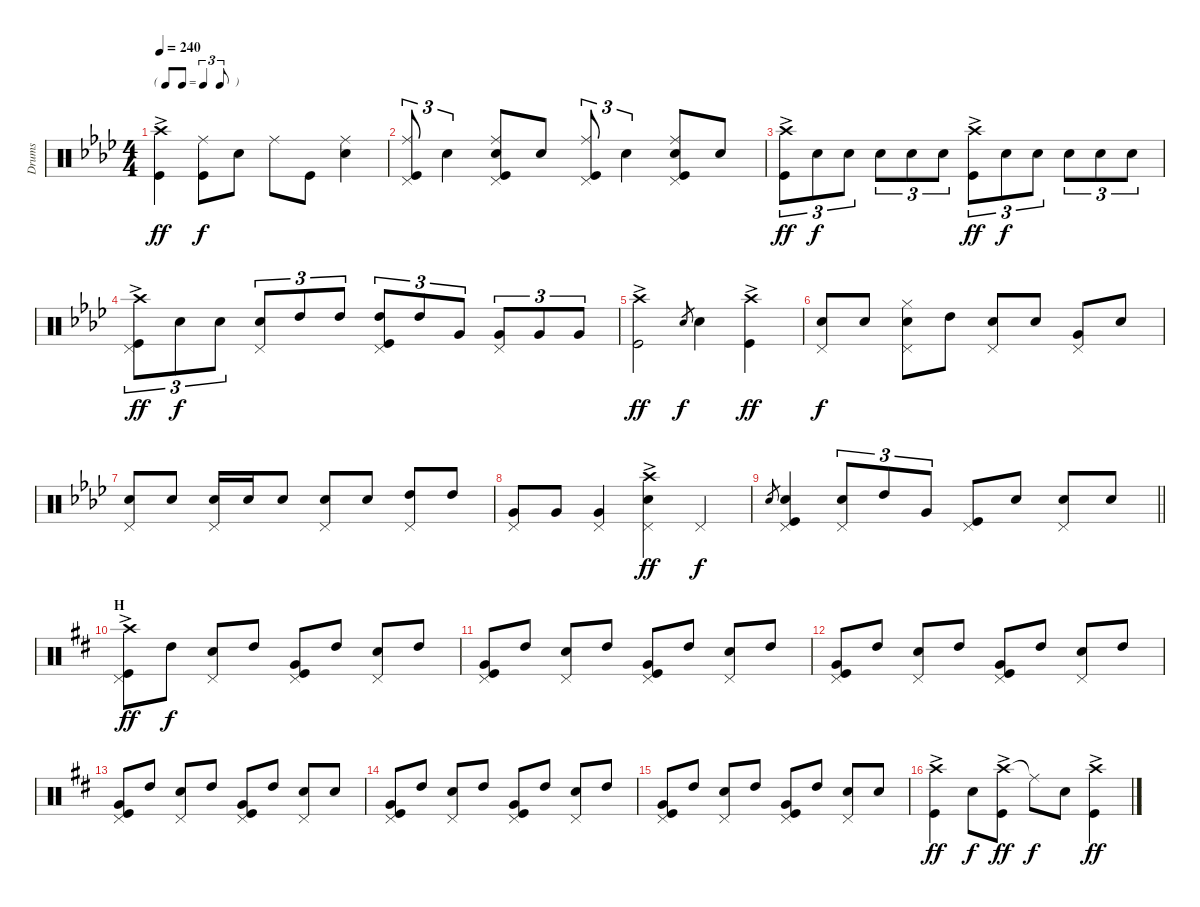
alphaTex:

\track ("Drums" "Drums") {instrument percussion}
\staff {score}
\articulation defaults
\ts (4 4)
\tf triplet8th
\tempo 240
\clef neutral
\ks ab
("Crash high (hit)"{ac} "Kick (hit)").4{dy ff} ("Ride (middle)" "Kick (hit)").8{dy f} "Snare (hit) 2".8 "Ride (middle)".8 "Kick (hit)".8 ("Ride (middle)" "Snare (hit) 2").4 |
("Ride (middle)" "Kick (hit)" "Pedal Hi-Hat (hit)").8{tu (3 2)} "Snare (hit) 2".4{tu (3 2)} ("Ride (middle)" "Snare (hit) 2" "Kick (hit)" "Pedal Hi-Hat (hit)").8 "Snare (hit) 2".8 ("Ride (middle)" "Kick (hit)" "Pedal Hi-Hat (hit)").8{tu (3 2)} "Snare (hit) 2".4{tu (3 2)} ("Ride (middle)" "Snare (hit) 2" "Kick (hit)" "Pedal Hi-Hat (hit)").8 "Snare (hit) 2".8 |
("Crash high (hit)"{ac} "Kick (hit)").8{tu (3 2) dy ff} "Snare (hit) 2".8{tu (3 2) dy f} "Snare (hit) 2".8{tu (3 2)} "Snare (hit) 2".8{tu (3 2)} "Snare (hit) 2".8{tu (3 2)} "Snare (hit) 2".8{tu (3 2)} ("Crash high (hit)"{ac} "Kick (hit)").8{tu (3 2) dy ff} "Snare (hit) 2".8{tu (3 2) dy f} "Snare (hit) 2".8{tu (3 2)} "Snare (hit) 2".8{tu (3 2)} "Snare (hit) 2".8{tu (3 2)} "Snare (hit) 2".8{tu (3 2)} |
("Crash high (hit)"{ac} "Kick (hit)" "Pedal Hi-Hat (hit)").8{tu (3 2) dy ff} "Snare (hit) 2".8{tu (3 2) dy f} "Snare (hit) 2".8{tu (3 2)} ("Snare (hit) 2" "Pedal Hi-Hat (hit)").8{tu (3 2)} "High Tom (hit)".8{tu (3 2)} "High Tom (hit)".8{tu (3 2)} ("High Tom (hit)" "Kick (hit)" "Pedal Hi-Hat (hit)").8{tu (3 2)} "High Tom (hit)".8{tu (3 2)} "Very Low Tom (hit)".8{tu (3 2)} ("Very Low Tom (hit)" "Pedal Hi-Hat (hit)").8{tu (3 2)} "Very Low Tom (hit)".8{tu (3 2)} "Very Low Tom (hit)".8{tu (3 2)} |
("Crash high (hit)"{ac} "Kick (hit)").2{dy ff} "Snare (hit) 2".8{gr dy f} "Snare (hit) 2".4 ("Crash high (hit)"{ac} "Kick (hit)").4{dy ff} |
("Snare (hit) 2" "Pedal Hi-Hat (hit)").8{dy f} "Snare (hit) 2".8 ("Snare (hit) 2" "Pedal Hi-Hat (hit)" "Hi-Hat (closed)").8 "High Tom (hit)".8 ("Snare (hit) 2" "Pedal Hi-Hat (hit)").8 "Snare (hit) 2".8 ("Very Low Tom (hit)" "Pedal Hi-Hat (hit)").8 "Snare (hit) 2".8 |
("Snare (hit) 2" "Pedal Hi-Hat (hit)").8 "Snare (hit) 2".8 ("Snare (hit) 2" "Pedal Hi-Hat (hit)").16 "Snare (hit) 2".16 "Snare (hit) 2".8 ("Snare (hit) 2" "Pedal Hi-Hat (hit)").8 "Snare (hit) 2".8 ("High Tom (hit)" "Pedal Hi-Hat (hit)").8 "High Tom (hit)".8 |
("Very Low Tom (hit)" "Pedal Hi-Hat (hit)").8 "Very Low Tom (hit)".8 ("Very Low Tom (hit)" "Pedal Hi-Hat (hit)").4 ("Crash high (hit)"{ac} "Snare (hit) 2" "Pedal Hi-Hat (hit)").4{dy ff} "Pedal Hi-Hat (hit)".4{dy f} |
\barLineRight lightlight "Snare (hit) 2".8{gr}
("Snare (hit) 2" "Kick (hit)" "Pedal Hi-Hat (hit)").4 ("Snare (hit) 2" "Pedal Hi-Hat (hit)").8{tu (3 2)} "High Tom (hit)".8{tu (3 2)} "Very Low Tom (hit)".8{tu (3 2)} ("Kick (hit)" "Pedal Hi-Hat (hit)").8 "Snare (hit) 2".8 ("Snare (hit) 2" "Pedal Hi-Hat (hit)").8 "Snare (hit) 2".8 |
\section ("" "H")
\ks d
("Crash high (hit)"{ac} "Kick (hit)" "Pedal Hi-Hat (hit)").8{dy ff} "High Tom (hit)".8{dy f} ("Snare (hit) 2" "Pedal Hi-Hat (hit)").8 "High Tom (hit)".8 ("Very Low Tom (hit)" "Kick (hit)" "Pedal Hi-Hat (hit)").8 "High Tom (hit)".8 ("Snare (hit) 2" "Pedal Hi-Hat (hit)").8 "High Tom (hit)".8 |
("Very Low Tom (hit)" "Kick (hit)" "Pedal Hi-Hat (hit)").8 "High Tom (hit)".8 ("Snare (hit) 2" "Pedal Hi-Hat (hit)").8 "High Tom (hit)".8 ("Very Low Tom (hit)" "Kick (hit)" "Pedal Hi-Hat (hit)").8 "High Tom (hit)".8 ("Snare (hit) 2" "Pedal Hi-Hat (hit)").8 "High Tom (hit)".8 |
("Very Low Tom (hit)" "Kick (hit)" "Pedal Hi-Hat (hit)").8 "High Tom (hit)".8 ("Snare (hit) 2" "Pedal Hi-Hat (hit)").8 "High Tom (hit)".8 ("Very Low Tom (hit)" "Kick (hit)" "Pedal Hi-Hat (hit)").8 "High Tom (hit)".8 ("Snare (hit) 2" "Pedal Hi-Hat (hit)").8 "High Tom (hit)".8 |
("Very Low Tom (hit)" "Kick (hit)" "Pedal Hi-Hat (hit)").8 "High Tom (hit)".8 ("Snare (hit) 2" "Pedal Hi-Hat (hit)").8 "High Tom (hit)".8 ("Very Low Tom (hit)" "Kick (hit)" "Pedal Hi-Hat (hit)").8 "High Tom (hit)".8 ("Snare (hit) 2" "Pedal Hi-Hat (hit)").8 "Snare (hit) 2".8 |
("Very Low Tom (hit)" "Kick (hit)" "Pedal Hi-Hat (hit)").8 "High Tom (hit)".8 ("Snare (hit) 2" "Pedal Hi-Hat (hit)").8 "High Tom (hit)".8 ("Very Low Tom (hit)" "Kick (hit)" "Pedal Hi-Hat (hit)").8 "High Tom (hit)".8 ("Snare (hit) 2" "Pedal Hi-Hat (hit)").8 "High Tom (hit)".8 |
("Very Low Tom (hit)" "Kick (hit)" "Pedal Hi-Hat (hit)").8 "High Tom (hit)".8 ("Snare (hit) 2" "Pedal Hi-Hat (hit)").8 "High Tom (hit)".8 ("Very Low Tom (hit)" "Kick (hit)" "Pedal Hi-Hat (hit)").8 "High Tom (hit)".8 ("Snare (hit) 2" "Pedal Hi-Hat (hit)").8 "Snare (hit) 2".8 |
("Crash high (hit)"{ac} "Kick (hit)").4{dy ff} "Snare (hit) 2".8{dy f} ("Crash high (hit)"{ac} "Kick (hit)").8{dy ff} "Ride (middle)"{t}.8{dy f} "Snare (hit) 2".8 ("Crash high (hit)"{ac} "Kick (hit)").4{dy ff}
